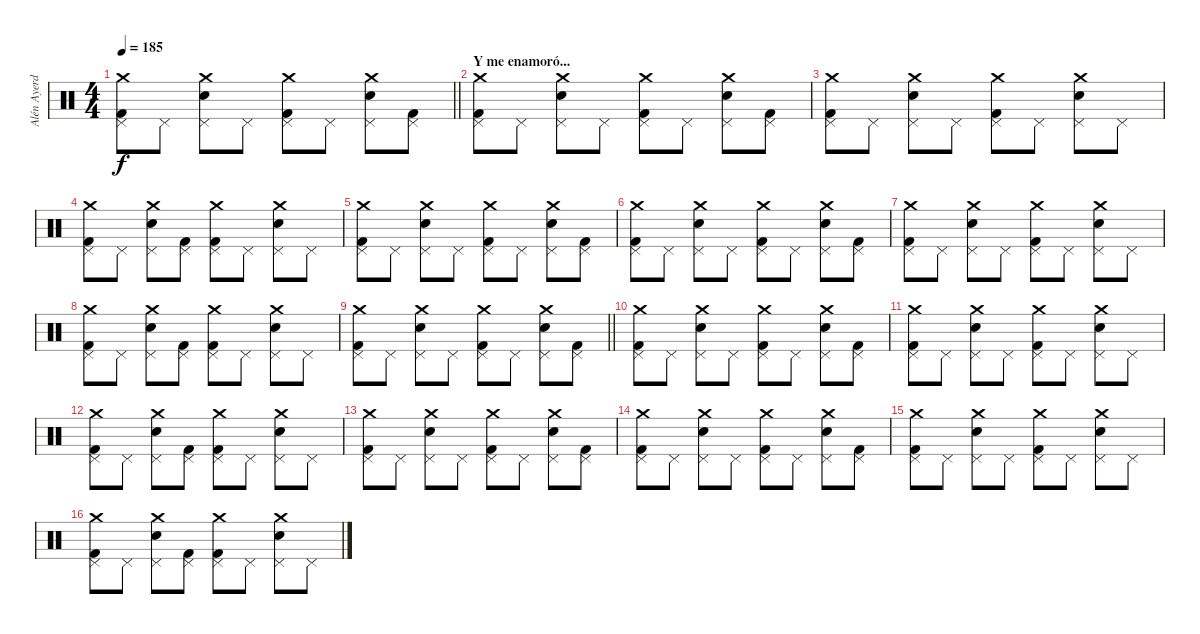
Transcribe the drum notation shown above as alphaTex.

\track ("Alén Ayerdi - Batería" "Alén Ayerd") {instrument percussion}
\staff {score}
\articulation defaults
\ts (4 4)
\tempo 185
\clef neutral
\barLineRight lightlight
\ks c
("Crash medium (hit)" "Pedal Hi-Hat (hit)" "Kick (hit) 2").8{dy f} "Pedal Hi-Hat (hit)".8 ("Crash medium (hit)" "Pedal Hi-Hat (hit)" "Electric Snare (hit)").8 "Pedal Hi-Hat (hit)".8 ("Crash medium (hit)" "Pedal Hi-Hat (hit)" "Kick (hit) 2").8 "Pedal Hi-Hat (hit)".8 ("Crash medium (hit)" "Pedal Hi-Hat (hit)" "Electric Snare (hit)").8 ("Pedal Hi-Hat (hit)" "Kick (hit) 2").8 |
\section ("" "Y me enamoró...")
("Crash medium (hit)" "Pedal Hi-Hat (hit)" "Kick (hit) 2").8 "Pedal Hi-Hat (hit)".8 ("Crash medium (hit)" "Pedal Hi-Hat (hit)" "Electric Snare (hit)").8 "Pedal Hi-Hat (hit)".8 ("Crash medium (hit)" "Pedal Hi-Hat (hit)" "Kick (hit) 2").8 "Pedal Hi-Hat (hit)".8 ("Crash medium (hit)" "Pedal Hi-Hat (hit)" "Electric Snare (hit)").8 ("Pedal Hi-Hat (hit)" "Kick (hit) 2").8 |
("Crash medium (hit)" "Pedal Hi-Hat (hit)" "Kick (hit) 2").8 "Pedal Hi-Hat (hit)".8 ("Crash medium (hit)" "Pedal Hi-Hat (hit)" "Electric Snare (hit)").8 "Pedal Hi-Hat (hit)".8 ("Crash medium (hit)" "Pedal Hi-Hat (hit)" "Kick (hit) 2").8 "Pedal Hi-Hat (hit)".8 ("Crash medium (hit)" "Pedal Hi-Hat (hit)" "Electric Snare (hit)").8 "Pedal Hi-Hat (hit)".8 |
("Crash medium (hit)" "Pedal Hi-Hat (hit)" "Kick (hit) 2").8 "Pedal Hi-Hat (hit)".8 ("Crash medium (hit)" "Pedal Hi-Hat (hit)" "Electric Snare (hit)").8 ("Pedal Hi-Hat (hit)" "Kick (hit) 2").8 ("Crash medium (hit)" "Pedal Hi-Hat (hit)" "Kick (hit) 2").8 "Pedal Hi-Hat (hit)".8 ("Crash medium (hit)" "Pedal Hi-Hat (hit)" "Electric Snare (hit)").8 "Pedal Hi-Hat (hit)".8 |
("Crash medium (hit)" "Pedal Hi-Hat (hit)" "Kick (hit) 2").8 "Pedal Hi-Hat (hit)".8 ("Crash medium (hit)" "Pedal Hi-Hat (hit)" "Electric Snare (hit)").8 "Pedal Hi-Hat (hit)".8 ("Crash medium (hit)" "Pedal Hi-Hat (hit)" "Kick (hit) 2").8 "Pedal Hi-Hat (hit)".8 ("Crash medium (hit)" "Pedal Hi-Hat (hit)" "Electric Snare (hit)").8 ("Pedal Hi-Hat (hit)" "Kick (hit) 2").8 |
("Crash medium (hit)" "Pedal Hi-Hat (hit)" "Kick (hit) 2").8 "Pedal Hi-Hat (hit)".8 ("Crash medium (hit)" "Pedal Hi-Hat (hit)" "Electric Snare (hit)").8 "Pedal Hi-Hat (hit)".8 ("Crash medium (hit)" "Pedal Hi-Hat (hit)" "Kick (hit) 2").8 "Pedal Hi-Hat (hit)".8 ("Crash medium (hit)" "Pedal Hi-Hat (hit)" "Electric Snare (hit)").8 ("Pedal Hi-Hat (hit)" "Kick (hit) 2").8 |
("Crash medium (hit)" "Pedal Hi-Hat (hit)" "Kick (hit) 2").8 "Pedal Hi-Hat (hit)".8 ("Crash medium (hit)" "Pedal Hi-Hat (hit)" "Electric Snare (hit)").8 "Pedal Hi-Hat (hit)".8 ("Crash medium (hit)" "Pedal Hi-Hat (hit)" "Kick (hit) 2").8 "Pedal Hi-Hat (hit)".8 ("Crash medium (hit)" "Pedal Hi-Hat (hit)" "Electric Snare (hit)").8 "Pedal Hi-Hat (hit)".8 |
("Crash medium (hit)" "Pedal Hi-Hat (hit)" "Kick (hit) 2").8 "Pedal Hi-Hat (hit)".8 ("Crash medium (hit)" "Pedal Hi-Hat (hit)" "Electric Snare (hit)").8 ("Pedal Hi-Hat (hit)" "Kick (hit) 2").8 ("Crash medium (hit)" "Pedal Hi-Hat (hit)" "Kick (hit) 2").8 "Pedal Hi-Hat (hit)".8 ("Crash medium (hit)" "Pedal Hi-Hat (hit)" "Electric Snare (hit)").8 "Pedal Hi-Hat (hit)".8 |
\barLineRight lightlight
("Crash medium (hit)" "Pedal Hi-Hat (hit)" "Kick (hit) 2").8 "Pedal Hi-Hat (hit)".8 ("Crash medium (hit)" "Pedal Hi-Hat (hit)" "Electric Snare (hit)").8 "Pedal Hi-Hat (hit)".8 ("Crash medium (hit)" "Pedal Hi-Hat (hit)" "Kick (hit) 2").8 "Pedal Hi-Hat (hit)".8 ("Crash medium (hit)" "Pedal Hi-Hat (hit)" "Electric Snare (hit)").8 ("Pedal Hi-Hat (hit)" "Kick (hit) 2").8 |
("Crash medium (hit)" "Pedal Hi-Hat (hit)" "Kick (hit) 2").8 "Pedal Hi-Hat (hit)".8 ("Crash medium (hit)" "Pedal Hi-Hat (hit)" "Electric Snare (hit)").8 "Pedal Hi-Hat (hit)".8 ("Crash medium (hit)" "Pedal Hi-Hat (hit)" "Kick (hit) 2").8 "Pedal Hi-Hat (hit)".8 ("Crash medium (hit)" "Pedal Hi-Hat (hit)" "Electric Snare (hit)").8 ("Pedal Hi-Hat (hit)" "Kick (hit) 2").8 |
("Crash medium (hit)" "Pedal Hi-Hat (hit)" "Kick (hit) 2").8 "Pedal Hi-Hat (hit)".8 ("Crash medium (hit)" "Pedal Hi-Hat (hit)" "Electric Snare (hit)").8 "Pedal Hi-Hat (hit)".8 ("Crash medium (hit)" "Pedal Hi-Hat (hit)" "Kick (hit) 2").8 "Pedal Hi-Hat (hit)".8 ("Crash medium (hit)" "Pedal Hi-Hat (hit)" "Electric Snare (hit)").8 "Pedal Hi-Hat (hit)".8 |
("Crash medium (hit)" "Pedal Hi-Hat (hit)" "Kick (hit) 2").8 "Pedal Hi-Hat (hit)".8 ("Crash medium (hit)" "Pedal Hi-Hat (hit)" "Electric Snare (hit)").8 ("Pedal Hi-Hat (hit)" "Kick (hit) 2").8 ("Crash medium (hit)" "Pedal Hi-Hat (hit)" "Kick (hit) 2").8 "Pedal Hi-Hat (hit)".8 ("Crash medium (hit)" "Pedal Hi-Hat (hit)" "Electric Snare (hit)").8 "Pedal Hi-Hat (hit)".8 |
("Crash medium (hit)" "Pedal Hi-Hat (hit)" "Kick (hit) 2").8 "Pedal Hi-Hat (hit)".8 ("Crash medium (hit)" "Pedal Hi-Hat (hit)" "Electric Snare (hit)").8 "Pedal Hi-Hat (hit)".8 ("Crash medium (hit)" "Pedal Hi-Hat (hit)" "Kick (hit) 2").8 "Pedal Hi-Hat (hit)".8 ("Crash medium (hit)" "Pedal Hi-Hat (hit)" "Electric Snare (hit)").8 ("Pedal Hi-Hat (hit)" "Kick (hit) 2").8 |
("Crash medium (hit)" "Pedal Hi-Hat (hit)" "Kick (hit) 2").8 "Pedal Hi-Hat (hit)".8 ("Crash medium (hit)" "Pedal Hi-Hat (hit)" "Electric Snare (hit)").8 "Pedal Hi-Hat (hit)".8 ("Crash medium (hit)" "Pedal Hi-Hat (hit)" "Kick (hit) 2").8 "Pedal Hi-Hat (hit)".8 ("Crash medium (hit)" "Pedal Hi-Hat (hit)" "Electric Snare (hit)").8 ("Pedal Hi-Hat (hit)" "Kick (hit) 2").8 |
("Crash medium (hit)" "Pedal Hi-Hat (hit)" "Kick (hit) 2").8 "Pedal Hi-Hat (hit)".8 ("Crash medium (hit)" "Pedal Hi-Hat (hit)" "Electric Snare (hit)").8 "Pedal Hi-Hat (hit)".8 ("Crash medium (hit)" "Pedal Hi-Hat (hit)" "Kick (hit) 2").8 "Pedal Hi-Hat (hit)".8 ("Crash medium (hit)" "Pedal Hi-Hat (hit)" "Electric Snare (hit)").8 "Pedal Hi-Hat (hit)".8 |
("Crash medium (hit)" "Pedal Hi-Hat (hit)" "Kick (hit) 2").8 "Pedal Hi-Hat (hit)".8 ("Crash medium (hit)" "Pedal Hi-Hat (hit)" "Electric Snare (hit)").8 ("Pedal Hi-Hat (hit)" "Kick (hit) 2").8 ("Crash medium (hit)" "Pedal Hi-Hat (hit)" "Kick (hit) 2").8 "Pedal Hi-Hat (hit)".8 ("Crash medium (hit)" "Pedal Hi-Hat (hit)" "Electric Snare (hit)").8 "Pedal Hi-Hat (hit)".8
